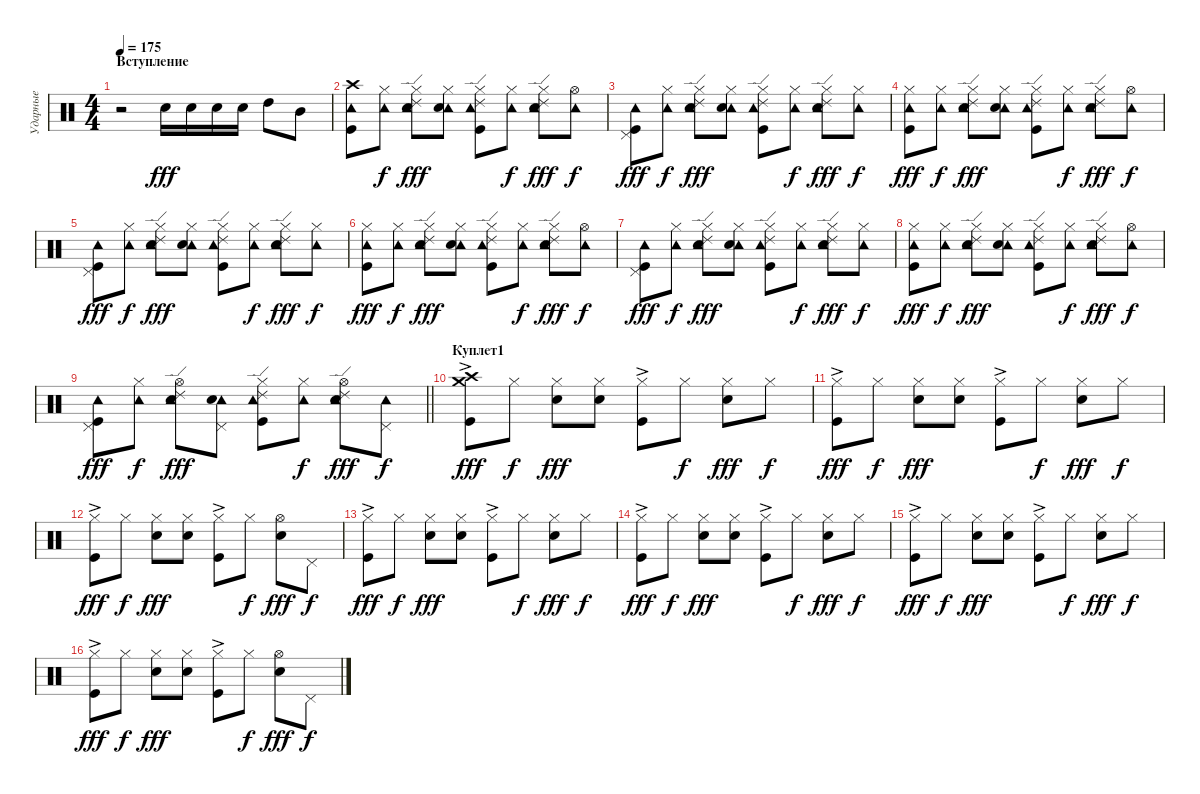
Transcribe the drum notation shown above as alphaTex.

\track ("Ударные" "Ударные") {instrument percussion}
\staff {score}
\articulation defaults
\ts (4 4)
\section ("" "Вступление")
\tempo 175
\clef neutral
\ks c
r.2{dy fff} "Snare (hit) 2".16 "Snare (hit) 2".16 "Snare (hit) 2".16 "Snare (hit) 2".16 "High Tom (hit)".8 "Mid Tom (hit)".8 |
("Crash high (hit)" "Tambourine (hit)" "Kick (hit)").8 ("Hi-Hat (closed)" "Tambourine (hit)").8{dy f} ("Hi-Hat (closed)" "Ride (edge) 2" "Tambourine (hit)" "Snare (hit) 2").8{dy fff} ("Hi-Hat (closed)" "Tambourine (hit)" "Snare (hit) 2").8 ("Hi-Hat (closed)" "Ride (edge) 2" "Tambourine (hit)" "Kick (hit)").8 ("Hi-Hat (closed)" "Tambourine (hit)").8{dy f} ("Hi-Hat (closed)" "Ride (edge) 2" "Tambourine (hit)" "Snare (hit) 2").8{dy fff} ("Hi-Hat (open)" "Tambourine (hit)").8{dy f} |
("Pedal Hi-Hat (hit)" "Tambourine (hit)" "Kick (hit)").8{dy fff} ("Hi-Hat (closed)" "Tambourine (hit)").8{dy f} ("Hi-Hat (closed)" "Ride (edge) 2" "Tambourine (hit)" "Snare (hit) 2").8{dy fff} ("Hi-Hat (closed)" "Tambourine (hit)" "Snare (hit) 2").8 ("Hi-Hat (closed)" "Ride (edge) 2" "Tambourine (hit)" "Kick (hit)").8 ("Hi-Hat (closed)" "Tambourine (hit)").8{dy f} ("Hi-Hat (closed)" "Ride (edge) 2" "Tambourine (hit)" "Snare (hit) 2").8{dy fff} ("Hi-Hat (closed)" "Tambourine (hit)").8{dy f} |
("Hi-Hat (closed)" "Tambourine (hit)" "Kick (hit)").8{dy fff} ("Hi-Hat (closed)" "Tambourine (hit)").8{dy f} ("Hi-Hat (closed)" "Ride (edge) 2" "Tambourine (hit)" "Snare (hit) 2").8{dy fff} ("Hi-Hat (closed)" "Tambourine (hit)" "Snare (hit) 2").8 ("Hi-Hat (closed)" "Ride (edge) 2" "Tambourine (hit)" "Kick (hit)").8 ("Hi-Hat (closed)" "Tambourine (hit)").8{dy f} ("Hi-Hat (closed)" "Ride (edge) 2" "Tambourine (hit)" "Snare (hit) 2").8{dy fff} ("Hi-Hat (open)" "Tambourine (hit)").8{dy f} |
("Pedal Hi-Hat (hit)" "Tambourine (hit)" "Kick (hit)").8{dy fff} ("Hi-Hat (closed)" "Tambourine (hit)").8{dy f} ("Hi-Hat (closed)" "Ride (edge) 2" "Tambourine (hit)" "Snare (hit) 2").8{dy fff} ("Hi-Hat (closed)" "Tambourine (hit)" "Snare (hit) 2").8 ("Hi-Hat (closed)" "Ride (edge) 2" "Tambourine (hit)" "Kick (hit)").8 ("Hi-Hat (closed)" "Tambourine (hit)").8{dy f} ("Hi-Hat (closed)" "Ride (edge) 2" "Tambourine (hit)" "Snare (hit) 2").8{dy fff} ("Hi-Hat (closed)" "Tambourine (hit)").8{dy f} |
("Hi-Hat (closed)" "Tambourine (hit)" "Kick (hit)").8{dy fff} ("Hi-Hat (closed)" "Tambourine (hit)").8{dy f} ("Hi-Hat (closed)" "Ride (edge) 2" "Tambourine (hit)" "Snare (hit) 2").8{dy fff} ("Hi-Hat (closed)" "Tambourine (hit)" "Snare (hit) 2").8 ("Hi-Hat (closed)" "Ride (edge) 2" "Tambourine (hit)" "Kick (hit)").8 ("Hi-Hat (closed)" "Tambourine (hit)").8{dy f} ("Hi-Hat (closed)" "Ride (edge) 2" "Tambourine (hit)" "Snare (hit) 2").8{dy fff} ("Hi-Hat (open)" "Tambourine (hit)").8{dy f} |
("Pedal Hi-Hat (hit)" "Tambourine (hit)" "Kick (hit)").8{dy fff} ("Hi-Hat (closed)" "Tambourine (hit)").8{dy f} ("Hi-Hat (closed)" "Ride (edge) 2" "Tambourine (hit)" "Snare (hit) 2").8{dy fff} ("Hi-Hat (closed)" "Tambourine (hit)" "Snare (hit) 2").8 ("Hi-Hat (closed)" "Ride (edge) 2" "Tambourine (hit)" "Kick (hit)").8 ("Hi-Hat (closed)" "Tambourine (hit)").8{dy f} ("Hi-Hat (closed)" "Ride (edge) 2" "Tambourine (hit)" "Snare (hit) 2").8{dy fff} ("Hi-Hat (closed)" "Tambourine (hit)").8{dy f} |
("Hi-Hat (closed)" "Tambourine (hit)" "Kick (hit)").8{dy fff} ("Hi-Hat (closed)" "Tambourine (hit)").8{dy f} ("Hi-Hat (closed)" "Ride (edge) 2" "Tambourine (hit)" "Snare (hit) 2").8{dy fff} ("Hi-Hat (closed)" "Tambourine (hit)" "Snare (hit) 2").8 ("Hi-Hat (closed)" "Ride (edge) 2" "Tambourine (hit)" "Kick (hit)").8 ("Hi-Hat (closed)" "Tambourine (hit)").8{dy f} ("Hi-Hat (closed)" "Ride (edge) 2" "Tambourine (hit)" "Snare (hit) 2").8{dy fff} ("Hi-Hat (open)" "Tambourine (hit)").8{dy f} |
\barLineRight lightlight
("Pedal Hi-Hat (hit)" "Tambourine (hit)" "Kick (hit)").8{dy fff} ("Hi-Hat (closed)" "Tambourine (hit)").8{dy f} ("Hi-Hat (open)" "Ride (edge) 2" "Tambourine (hit)" "Snare (hit) 2").8{dy fff} ("Pedal Hi-Hat (hit)" "Tambourine (hit)" "Snare (hit) 2").8 ("Hi-Hat (closed)" "Ride (edge) 2" "Tambourine (hit)" "Kick (hit)").8 ("Hi-Hat (closed)" "Tambourine (hit)").8{dy f} ("Hi-Hat (open)" "Ride (edge) 2" "Tambourine (hit)" "Snare (hit) 2").8{dy fff} ("Pedal Hi-Hat (hit)" "Tambourine (hit)").8{dy f} |
\section ("" "Куплет1")
("Crash high (hit)"{ac} "Crash medium (hit)"{ac} "Kick (hit)").8{dy fff} "Hi-Hat (closed)".8{dy f} ("Hi-Hat (closed)" "Snare (hit) 2").8{dy fff} ("Hi-Hat (closed)" "Snare (hit) 2").8 ("Hi-Hat (closed)"{ac} "Kick (hit)").8 "Hi-Hat (closed)".8{dy f} ("Hi-Hat (closed)" "Snare (hit) 2").8{dy fff} "Hi-Hat (closed)".8{dy f} |
("Hi-Hat (closed)"{ac} "Kick (hit)").8{dy fff} "Hi-Hat (closed)".8{dy f} ("Hi-Hat (closed)" "Snare (hit) 2").8{dy fff} ("Hi-Hat (closed)" "Snare (hit) 2").8 ("Hi-Hat (closed)"{ac} "Kick (hit)").8 "Hi-Hat (closed)".8{dy f} ("Hi-Hat (closed)" "Snare (hit) 2").8{dy fff} "Hi-Hat (closed)".8{dy f} |
("Hi-Hat (closed)"{ac} "Kick (hit)").8{dy fff} "Hi-Hat (closed)".8{dy f} ("Hi-Hat (closed)" "Snare (hit) 2").8{dy fff} ("Hi-Hat (closed)" "Snare (hit) 2").8 ("Hi-Hat (closed)"{ac} "Kick (hit)").8 "Hi-Hat (closed)".8{dy f} ("Hi-Hat (open)" "Snare (hit) 2").8{dy fff} "Pedal Hi-Hat (hit)".8{dy f} |
("Hi-Hat (closed)"{ac} "Kick (hit)").8{dy fff} "Hi-Hat (closed)".8{dy f} ("Hi-Hat (closed)" "Snare (hit) 2").8{dy fff} ("Hi-Hat (closed)" "Snare (hit) 2").8 ("Hi-Hat (closed)"{ac} "Kick (hit)").8 "Hi-Hat (closed)".8{dy f} ("Hi-Hat (closed)" "Snare (hit) 2").8{dy fff} "Hi-Hat (closed)".8{dy f} |
("Hi-Hat (closed)"{ac} "Kick (hit)").8{dy fff} "Hi-Hat (closed)".8{dy f} ("Hi-Hat (closed)" "Snare (hit) 2").8{dy fff} ("Hi-Hat (closed)" "Snare (hit) 2").8 ("Hi-Hat (closed)"{ac} "Kick (hit)").8 "Hi-Hat (closed)".8{dy f} ("Hi-Hat (closed)" "Snare (hit) 2").8{dy fff} "Hi-Hat (closed)".8{dy f} |
("Hi-Hat (closed)"{ac} "Kick (hit)").8{dy fff} "Hi-Hat (closed)".8{dy f} ("Hi-Hat (closed)" "Snare (hit) 2").8{dy fff} ("Hi-Hat (closed)" "Snare (hit) 2").8 ("Hi-Hat (closed)"{ac} "Kick (hit)").8 "Hi-Hat (closed)".8{dy f} ("Hi-Hat (closed)" "Snare (hit) 2").8{dy fff} "Hi-Hat (closed)".8{dy f} |
("Hi-Hat (closed)"{ac} "Kick (hit)").8{dy fff} "Hi-Hat (closed)".8{dy f} ("Hi-Hat (closed)" "Snare (hit) 2").8{dy fff} ("Hi-Hat (closed)" "Snare (hit) 2").8 ("Hi-Hat (closed)"{ac} "Kick (hit)").8 "Hi-Hat (closed)".8{dy f} ("Hi-Hat (open)" "Snare (hit) 2").8{dy fff} "Pedal Hi-Hat (hit)".8{dy f}
